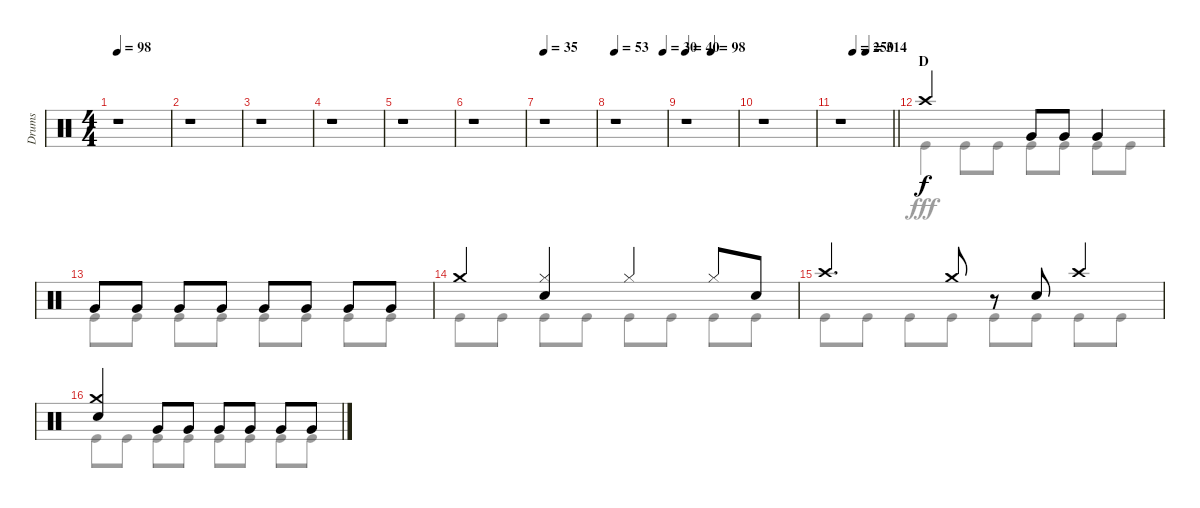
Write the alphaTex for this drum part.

\track ("Drums" "Drums") {instrument percussion}
\staff {score}
\articulation defaults
\voice
\ts (4 4)
\tempo 98
\clef neutral
\ks c
r.1{dy f} |
r.1 |
r.1 |
r.1 |
r.1 |
r.1 |
\tempo 35
r.1 |
\tempo 53
\tempo (30 0.9375)
r.1 |
\tempo 40
\tempo (98 0.5)
r.1 |
r.1 |
\tempo (314 0.5)
\tempo (250 0.25)
\barLineRight lightlight
r.1 |
\section ("" "D")
"Crash high (hit)".2 "Very Low Tom (hit)".8 "Very Low Tom (hit)".8 "Very Low Tom (hit)".4 |
"Very Low Tom (hit)".8 "Very Low Tom (hit)".8 "Very Low Tom (hit)".8 "Very Low Tom (hit)".8 "Very Low Tom (hit)".8 "Very Low Tom (hit)".8 "Very Low Tom (hit)".8 "Very Low Tom (hit)".8 |
"Crash medium (hit)".4 ("Hi-Hat (closed)" "Snare (hit) 2").4 "Hi-Hat (closed)".4 "Hi-Hat (closed)".8 "Snare (hit) 2".8 |
"Crash high (hit)".4{d} "Crash medium (hit)".8 r.8 "Snare (hit) 2".8 "Crash high (hit)".4 |
("Crash medium (hit)" "Snare (hit) 2").4 "Very Low Tom (hit)".8 "Very Low Tom (hit)".8 "Very Low Tom (hit)".8 "Very Low Tom (hit)".8 "Very Low Tom (hit)".8 "Very Low Tom (hit)".8
\voice
\clef neutral
\ottava regular
\simile none
\ks c
r.1{dy fff} |
r.1 |
r.1 |
r.1 |
r.1 |
r.1 |
r.1 |
r.1 |
r.1 |
r.1 |
\barLineRight lightlight
r.1 |
"Kick (hit)".4 "Kick (hit)".8 "Kick (hit)".8 "Kick (hit)".8 "Kick (hit)".8 "Kick (hit)".8 "Kick (hit)".8 |
"Kick (hit)".8 "Kick (hit)".8 "Kick (hit)".8 "Kick (hit)".8 "Kick (hit)".8 "Kick (hit)".8 "Kick (hit)".8 "Kick (hit)".8 |
"Kick (hit)".8 "Kick (hit)".8 "Kick (hit)".8 "Kick (hit)".8 "Kick (hit)".8 "Kick (hit)".8 "Kick (hit)".8 "Kick (hit)".8 |
"Kick (hit)".8 "Kick (hit)".8 "Kick (hit)".8 "Kick (hit)".8 "Kick (hit)".8 "Kick (hit)".8 "Kick (hit)".8 "Kick (hit)".8 |
"Kick (hit)".8 "Kick (hit)".8 "Kick (hit)".8 "Kick (hit)".8 "Kick (hit)".8 "Kick (hit)".8 "Kick (hit)".8 "Kick (hit)".8
